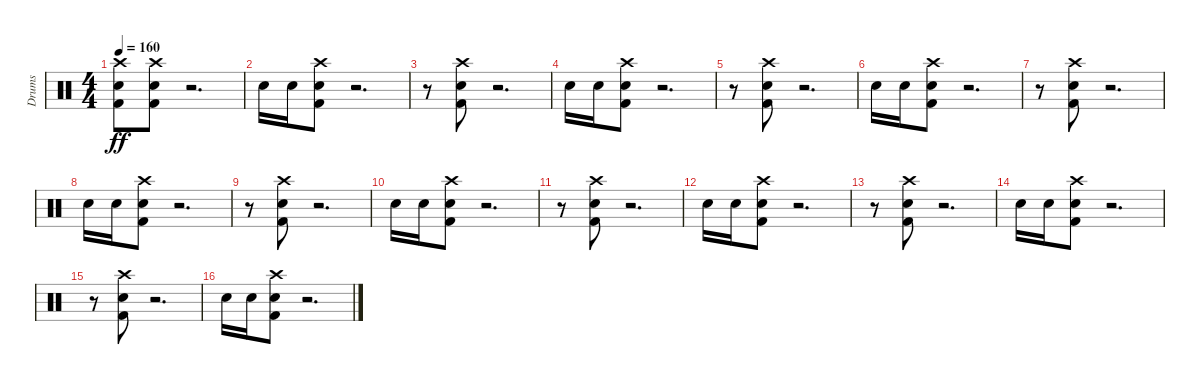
\track ("Drums" "Drums") {instrument percussion}
\staff {score}
\articulation defaults
\ts (4 4)
\tempo 160
\clef neutral
\ks c
("Kick (hit) 2" "Snare (hit) 2" "Crash high (hit)").8{dy ff} ("Kick (hit) 2" "Snare (hit) 2" "Crash high (hit)").8 r.2{d} |
"Snare (hit) 2".16 "Snare (hit) 2".16 ("Kick (hit) 2" "Snare (hit) 2" "Crash high (hit)").8 r.2{d} |
r.8 ("Kick (hit) 2" "Snare (hit) 2" "Crash high (hit)").8 r.2{d} |
"Snare (hit) 2".16 "Snare (hit) 2".16 ("Kick (hit) 2" "Snare (hit) 2" "Crash high (hit)").8 r.2{d} |
r.8 ("Kick (hit) 2" "Snare (hit) 2" "Crash high (hit)").8 r.2{d} |
"Snare (hit) 2".16 "Snare (hit) 2".16 ("Kick (hit) 2" "Snare (hit) 2" "Crash high (hit)").8 r.2{d} |
r.8 ("Kick (hit) 2" "Snare (hit) 2" "Crash high (hit)").8 r.2{d} |
"Snare (hit) 2".16 "Snare (hit) 2".16 ("Kick (hit) 2" "Snare (hit) 2" "Crash high (hit)").8 r.2{d} |
r.8 ("Kick (hit) 2" "Snare (hit) 2" "Crash high (hit)").8 r.2{d} |
"Snare (hit) 2".16 "Snare (hit) 2".16 ("Kick (hit) 2" "Snare (hit) 2" "Crash high (hit)").8 r.2{d} |
r.8 ("Kick (hit) 2" "Snare (hit) 2" "Crash high (hit)").8 r.2{d} |
"Snare (hit) 2".16 "Snare (hit) 2".16 ("Kick (hit) 2" "Snare (hit) 2" "Crash high (hit)").8 r.2{d} |
r.8 ("Kick (hit) 2" "Snare (hit) 2" "Crash high (hit)").8 r.2{d} |
"Snare (hit) 2".16 "Snare (hit) 2".16 ("Kick (hit) 2" "Snare (hit) 2" "Crash high (hit)").8 r.2{d} |
r.8 ("Kick (hit) 2" "Snare (hit) 2" "Crash high (hit)").8 r.2{d} |
"Snare (hit) 2".16 "Snare (hit) 2".16 ("Kick (hit) 2" "Snare (hit) 2" "Crash high (hit)").8 r.2{d}
